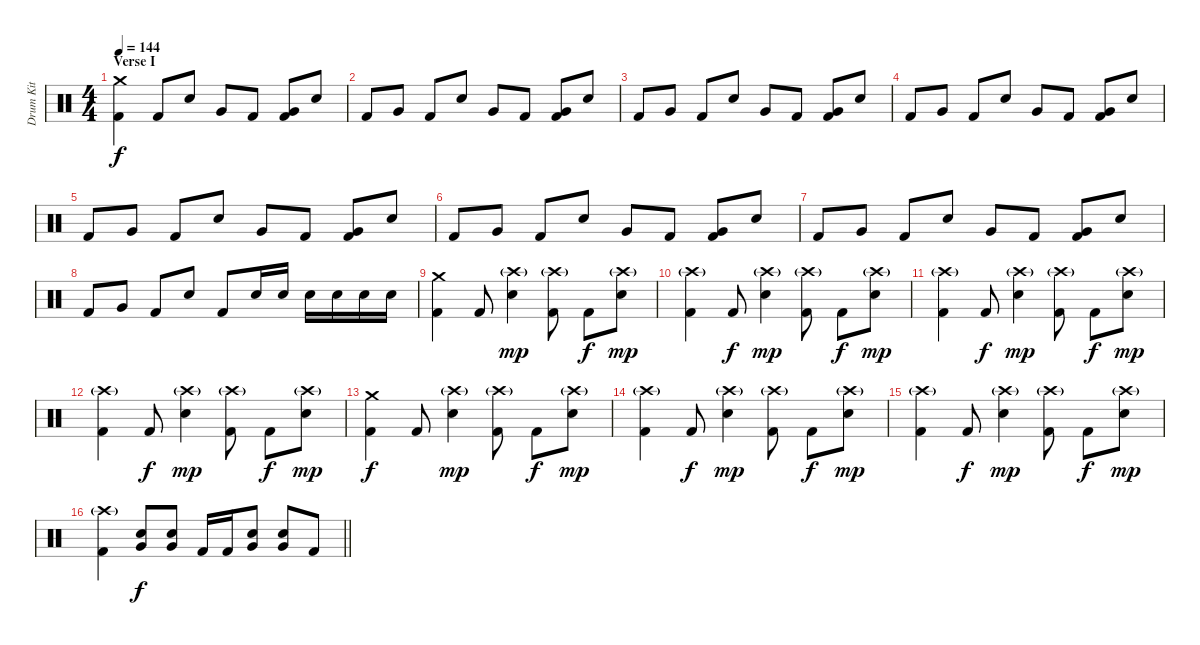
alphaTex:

\track ("Drum Kit" "Drum Kit") {instrument percussion}
\staff {score}
\articulation defaults
\ts (4 4)
\section ("" "Verse I")
\tempo 144
\clef neutral
\ks c
("Crash medium (hit)" "Kick (hit) 2").4{dy f} "Kick (hit) 2".8 "Electric Snare (hit)".8 "Very Low Tom (hit)".8 "Kick (hit) 2".8 ("Very Low Tom (hit)" "Kick (hit) 2").8 "Electric Snare (hit)".8 |
"Kick (hit) 2".8 "Very Low Tom (hit)".8 "Kick (hit) 2".8 "Electric Snare (hit)".8 "Very Low Tom (hit)".8 "Kick (hit) 2".8 ("Very Low Tom (hit)" "Kick (hit) 2").8 "Electric Snare (hit)".8 |
"Kick (hit) 2".8 "Very Low Tom (hit)".8 "Kick (hit) 2".8 "Electric Snare (hit)".8 "Very Low Tom (hit)".8 "Kick (hit) 2".8 ("Very Low Tom (hit)" "Kick (hit) 2").8 "Electric Snare (hit)".8 |
"Kick (hit) 2".8 "Very Low Tom (hit)".8 "Kick (hit) 2".8 "Electric Snare (hit)".8 "Very Low Tom (hit)".8 "Kick (hit) 2".8 ("Very Low Tom (hit)" "Kick (hit) 2").8 "Electric Snare (hit)".8 |
"Kick (hit) 2".8 "Very Low Tom (hit)".8 "Kick (hit) 2".8 "Electric Snare (hit)".8 "Very Low Tom (hit)".8 "Kick (hit) 2".8 ("Very Low Tom (hit)" "Kick (hit) 2").8 "Electric Snare (hit)".8 |
"Kick (hit) 2".8 "Very Low Tom (hit)".8 "Kick (hit) 2".8 "Electric Snare (hit)".8 "Very Low Tom (hit)".8 "Kick (hit) 2".8 ("Very Low Tom (hit)" "Kick (hit) 2").8 "Electric Snare (hit)".8 |
"Kick (hit) 2".8 "Very Low Tom (hit)".8 "Kick (hit) 2".8 "Electric Snare (hit)".8 "Very Low Tom (hit)".8 "Kick (hit) 2".8 ("Very Low Tom (hit)" "Kick (hit) 2").8 "Electric Snare (hit)".8 |
"Kick (hit) 2".8 "Very Low Tom (hit)".8 "Kick (hit) 2".8 "Electric Snare (hit)".8 "Kick (hit) 2".8 "Electric Snare (hit)".16 "Electric Snare (hit)".16 "Electric Snare (hit)".16 "Electric Snare (hit)".16 "Electric Snare (hit)".16 "Electric Snare (hit)".16 |
("Crash medium (hit)" "Kick (hit) 2").4 "Kick (hit) 2".8 ("Crash high (hit)"{g} "Electric Snare (hit)").4{dy mp} ("Crash high (hit)"{g} "Kick (hit) 2").8 "Kick (hit) 2".8{dy f} ("Crash high (hit)"{g} "Electric Snare (hit)").8{dy mp} |
("Crash high (hit)"{g} "Kick (hit) 2").4 "Kick (hit) 2".8{dy f} ("Crash high (hit)"{g} "Electric Snare (hit)").4{dy mp} ("Crash high (hit)"{g} "Kick (hit) 2").8 "Kick (hit) 2".8{dy f} ("Crash high (hit)"{g} "Electric Snare (hit)").8{dy mp} |
("Crash high (hit)"{g} "Kick (hit) 2").4 "Kick (hit) 2".8{dy f} ("Crash high (hit)"{g} "Electric Snare (hit)").4{dy mp} ("Crash high (hit)"{g} "Kick (hit) 2").8 "Kick (hit) 2".8{dy f} ("Crash high (hit)"{g} "Electric Snare (hit)").8{dy mp} |
("Crash high (hit)"{g} "Kick (hit) 2").4 "Kick (hit) 2".8{dy f} ("Crash high (hit)"{g} "Electric Snare (hit)").4{dy mp} ("Crash high (hit)"{g} "Kick (hit) 2").8 "Kick (hit) 2".8{dy f} ("Crash high (hit)"{g} "Electric Snare (hit)").8{dy mp} |
("Crash medium (hit)" "Kick (hit) 2").4{dy f} "Kick (hit) 2".8 ("Crash high (hit)"{g} "Electric Snare (hit)").4{dy mp} ("Crash high (hit)"{g} "Kick (hit) 2").8 "Kick (hit) 2".8{dy f} ("Crash high (hit)"{g} "Electric Snare (hit)").8{dy mp} |
("Crash high (hit)"{g} "Kick (hit) 2").4 "Kick (hit) 2".8{dy f} ("Crash high (hit)"{g} "Electric Snare (hit)").4{dy mp} ("Crash high (hit)"{g} "Kick (hit) 2").8 "Kick (hit) 2".8{dy f} ("Crash high (hit)"{g} "Electric Snare (hit)").8{dy mp} |
("Crash high (hit)"{g} "Kick (hit) 2").4 "Kick (hit) 2".8{dy f} ("Crash high (hit)"{g} "Electric Snare (hit)").4{dy mp} ("Crash high (hit)"{g} "Kick (hit) 2").8 "Kick (hit) 2".8{dy f} ("Crash high (hit)"{g} "Electric Snare (hit)").8{dy mp} |
\barLineRight lightlight
("Crash high (hit)"{g} "Kick (hit) 2").4 ("Very Low Tom (hit)" "Electric Snare (hit)").8{dy f} ("Very Low Tom (hit)" "Electric Snare (hit)").8 "Kick (hit) 2".16 "Kick (hit) 2".16 ("Very Low Tom (hit)" "Electric Snare (hit)").8 ("Very Low Tom (hit)" "Electric Snare (hit)").8 "Kick (hit) 2".8
